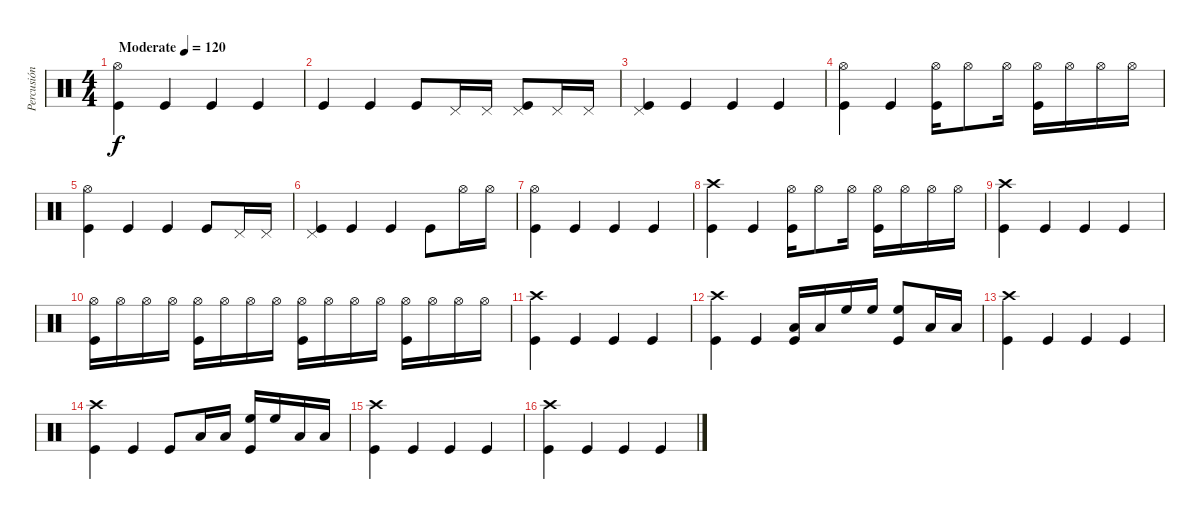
\track ("Percusión" "Percusión") {instrument percussion}
\staff {score}
\articulation defaults
\ts (4 4)
\tempo (120 "Moderate")
\clef neutral
\ks c
("Hi-Hat (open)" "Kick (hit)").4{dy f} "Kick (hit)".4 "Kick (hit)".4 "Kick (hit)".4 |
"Kick (hit)".4 "Kick (hit)".4 "Kick (hit)".8 "Pedal Hi-Hat (hit)".16 "Pedal Hi-Hat (hit)".16 ("Pedal Hi-Hat (hit)" "Kick (hit)").8 "Pedal Hi-Hat (hit)".16 "Pedal Hi-Hat (hit)".16 |
("Pedal Hi-Hat (hit)" "Kick (hit)").4 "Kick (hit)".4 "Kick (hit)".4 "Kick (hit)".4 |
("Hi-Hat (open)" "Kick (hit)").4 "Kick (hit)".4 ("Hi-Hat (open)" "Kick (hit)").16 "Hi-Hat (open)".8 "Hi-Hat (open)".16 ("Hi-Hat (open)" "Kick (hit)").16 "Hi-Hat (open)".16 "Hi-Hat (open)".16 "Hi-Hat (open)".16 |
("Hi-Hat (open)" "Kick (hit)").4 "Kick (hit)".4 "Kick (hit)".4 "Kick (hit)".8 "Pedal Hi-Hat (hit)".16 "Pedal Hi-Hat (hit)".16 |
("Pedal Hi-Hat (hit)" "Kick (hit)").4 "Kick (hit)".4 "Kick (hit)".4 "Kick (hit)".8 "Hi-Hat (open)".16 "Hi-Hat (open)".16 |
("Hi-Hat (open)" "Kick (hit)").4 "Kick (hit)".4 "Kick (hit)".4 "Kick (hit)".4 |
("Crash high (hit)" "Kick (hit)").4 "Kick (hit)".4 ("Hi-Hat (open)" "Kick (hit)").16 "Hi-Hat (open)".8 "Hi-Hat (open)".16 ("Hi-Hat (open)" "Kick (hit)").16 "Hi-Hat (open)".16 "Hi-Hat (open)".16 "Hi-Hat (open)".16 |
("Crash high (hit)" "Kick (hit)").4 "Kick (hit)".4 "Kick (hit)".4 "Kick (hit)".4 |
("Hi-Hat (open)" "Kick (hit)").16 "Hi-Hat (open)".16 "Hi-Hat (open)".16 "Hi-Hat (open)".16 ("Hi-Hat (open)" "Kick (hit)").16 "Hi-Hat (open)".16 "Hi-Hat (open)".16 "Hi-Hat (open)".16 ("Hi-Hat (open)" "Kick (hit)").16 "Hi-Hat (open)".16 "Hi-Hat (open)".16 "Hi-Hat (open)".16 ("Hi-Hat (open)" "Kick (hit)").16 "Hi-Hat (open)".16 "Hi-Hat (open)".16 "Hi-Hat (open)".16 |
("Crash high (hit)" "Kick (hit)").4 "Kick (hit)".4 "Kick (hit)".4 "Kick (hit)".4 |
("Crash high (hit)" "Kick (hit)").4 "Kick (hit)".4 ("Low Tom (hit)" "Kick (hit)").16 "Low Tom (hit)".16 "High Floor Tom (hit)".16 "High Floor Tom (hit)".16 ("High Floor Tom (hit)" "Kick (hit)").8 "Low Floor Tom (hit)".16 "Low Floor Tom (hit)".16 |
("Crash high (hit)" "Kick (hit)").4 "Kick (hit)".4 "Kick (hit)".4 "Kick (hit)".4 |
("Crash high (hit)" "Kick (hit)").4 "Kick (hit)".4 "Kick (hit)".8 "Low Tom (hit)".16 "Low Tom (hit)".16 ("High Floor Tom (hit)" "Kick (hit)").16 "High Floor Tom (hit)".16 "Low Floor Tom (hit)".16 "Low Floor Tom (hit)".16 |
("Crash high (hit)" "Kick (hit)").4 "Kick (hit)".4 "Kick (hit)".4 "Kick (hit)".4 |
("Crash high (hit)" "Kick (hit)").4 "Kick (hit)".4 "Kick (hit)".4 "Kick (hit)".4
